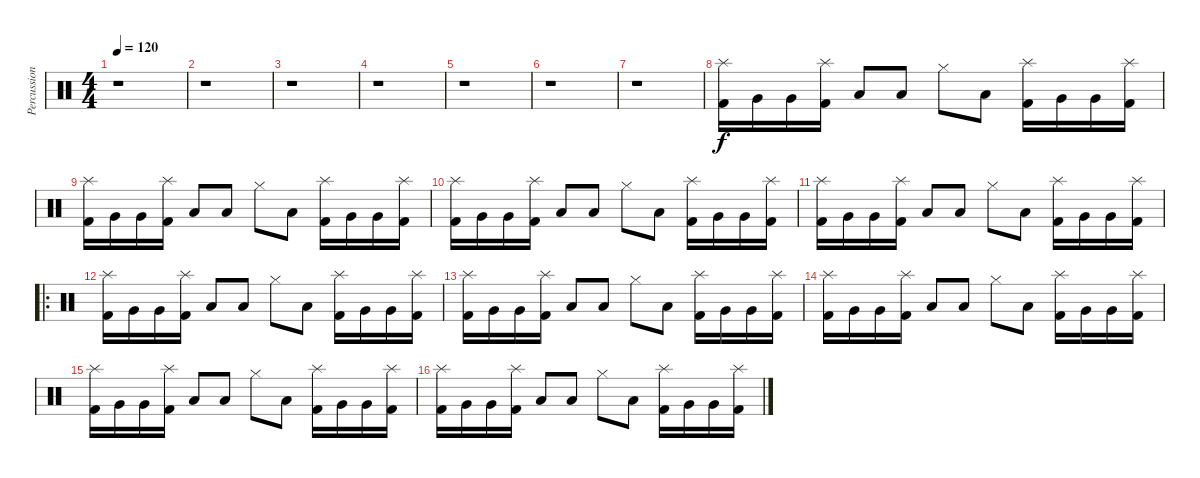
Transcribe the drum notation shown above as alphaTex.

\track ("Percussion" "Percussion") {instrument percussion}
\staff {score}
\articulation defaults
\ts (4 4)
\tempo 120
\clef neutral
\ks c
r.1{dy f} |
r.1 |
r.1 |
r.1 |
r.1 |
r.1 |
r.1 |
("Kick (hit) 2" "Splash (hit)").16 "Very Low Tom (hit)".16 "Very Low Tom (hit)".16 ("Kick (hit) 2" "Splash (hit)").16 "Low Floor Tom (hit)".8 "Low Floor Tom (hit)".8 "Hi-Hat (closed)".8 "Low Floor Tom (hit)".8 ("Kick (hit) 2" "Splash (hit)").16 "Very Low Tom (hit)".16 "Very Low Tom (hit)".16 ("Kick (hit) 2" "Splash (hit)").16 |
("Kick (hit) 2" "Splash (hit)").16 "Very Low Tom (hit)".16 "Very Low Tom (hit)".16 ("Kick (hit) 2" "Splash (hit)").16 "Low Floor Tom (hit)".8 "Low Floor Tom (hit)".8 "Hi-Hat (closed)".8 "Low Floor Tom (hit)".8 ("Kick (hit) 2" "Splash (hit)").16 "Very Low Tom (hit)".16 "Very Low Tom (hit)".16 ("Kick (hit) 2" "Splash (hit)").16 |
("Kick (hit) 2" "Splash (hit)").16 "Very Low Tom (hit)".16 "Very Low Tom (hit)".16 ("Kick (hit) 2" "Splash (hit)").16 "Low Floor Tom (hit)".8 "Low Floor Tom (hit)".8 "Hi-Hat (closed)".8 "Low Floor Tom (hit)".8 ("Kick (hit) 2" "Splash (hit)").16 "Very Low Tom (hit)".16 "Very Low Tom (hit)".16 ("Kick (hit) 2" "Splash (hit)").16 |
("Kick (hit) 2" "Splash (hit)").16 "Very Low Tom (hit)".16 "Very Low Tom (hit)".16 ("Kick (hit) 2" "Splash (hit)").16 "Low Floor Tom (hit)".8 "Low Floor Tom (hit)".8 "Hi-Hat (closed)".8 "Low Floor Tom (hit)".8 ("Kick (hit) 2" "Splash (hit)").16 "Very Low Tom (hit)".16 "Very Low Tom (hit)".16 ("Kick (hit) 2" "Splash (hit)").16 |
\ro
("Kick (hit) 2" "Splash (hit)").16 "Very Low Tom (hit)".16 "Very Low Tom (hit)".16 ("Kick (hit) 2" "Splash (hit)").16 "Low Floor Tom (hit)".8 "Low Floor Tom (hit)".8 "Hi-Hat (closed)".8 "Low Floor Tom (hit)".8 ("Kick (hit) 2" "Splash (hit)").16 "Very Low Tom (hit)".16 "Very Low Tom (hit)".16 ("Kick (hit) 2" "Splash (hit)").16 |
("Kick (hit) 2" "Splash (hit)").16 "Very Low Tom (hit)".16 "Very Low Tom (hit)".16 ("Kick (hit) 2" "Splash (hit)").16 "Low Floor Tom (hit)".8 "Low Floor Tom (hit)".8 "Hi-Hat (closed)".8 "Low Floor Tom (hit)".8 ("Kick (hit) 2" "Splash (hit)").16 "Very Low Tom (hit)".16 "Very Low Tom (hit)".16 ("Kick (hit) 2" "Splash (hit)").16 |
("Kick (hit) 2" "Splash (hit)").16 "Very Low Tom (hit)".16 "Very Low Tom (hit)".16 ("Kick (hit) 2" "Splash (hit)").16 "Low Floor Tom (hit)".8 "Low Floor Tom (hit)".8 "Hi-Hat (closed)".8 "Low Floor Tom (hit)".8 ("Kick (hit) 2" "Splash (hit)").16 "Very Low Tom (hit)".16 "Very Low Tom (hit)".16 ("Kick (hit) 2" "Splash (hit)").16 |
("Kick (hit) 2" "Splash (hit)").16 "Very Low Tom (hit)".16 "Very Low Tom (hit)".16 ("Kick (hit) 2" "Splash (hit)").16 "Low Floor Tom (hit)".8 "Low Floor Tom (hit)".8 "Hi-Hat (closed)".8 "Low Floor Tom (hit)".8 ("Kick (hit) 2" "Splash (hit)").16 "Very Low Tom (hit)".16 "Very Low Tom (hit)".16 ("Kick (hit) 2" "Splash (hit)").16 |
("Kick (hit) 2" "Splash (hit)").16 "Very Low Tom (hit)".16 "Very Low Tom (hit)".16 ("Kick (hit) 2" "Splash (hit)").16 "Low Floor Tom (hit)".8 "Low Floor Tom (hit)".8 "Hi-Hat (closed)".8 "Low Floor Tom (hit)".8 ("Kick (hit) 2" "Splash (hit)").16 "Very Low Tom (hit)".16 "Very Low Tom (hit)".16 ("Kick (hit) 2" "Splash (hit)").16
